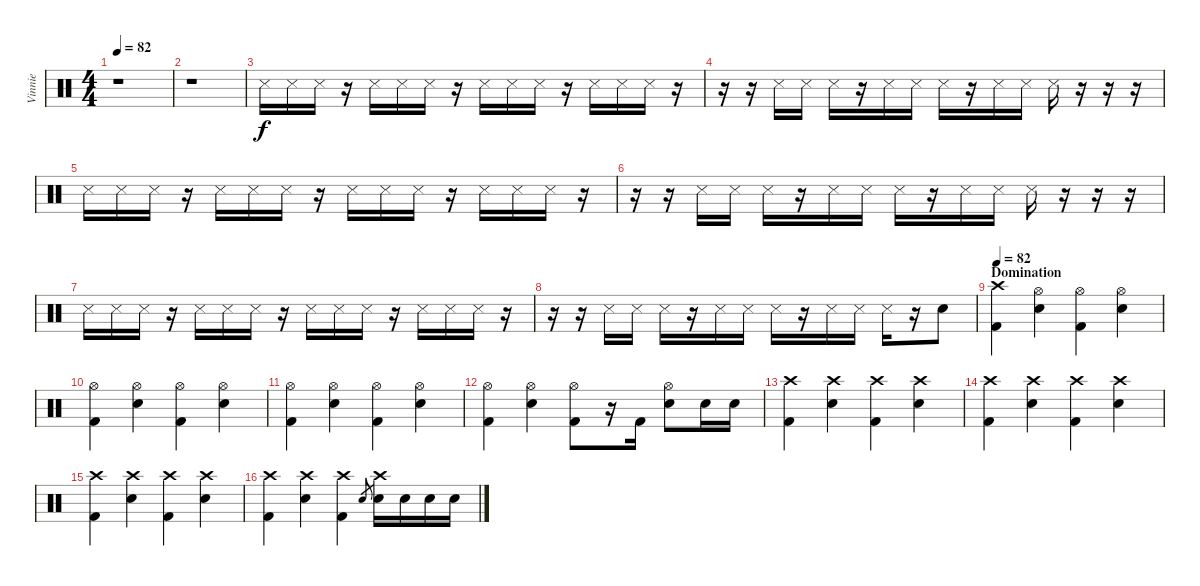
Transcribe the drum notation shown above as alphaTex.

\track ("Vinnie" "Vinnie") {instrument percussion}
\staff {score}
\articulation defaults
\ts (4 4)
\tempo 82
\tempo 75
\tempo 82
\clef neutral
\ks c
r.1{dy f} |
r.1 |
"Snare (side stick) 3".16 "Snare (side stick) 3".16 "Snare (side stick) 3".16 r.16 "Snare (side stick) 3".16 "Snare (side stick) 3".16 "Snare (side stick) 3".16 r.16 "Snare (side stick) 3".16 "Snare (side stick) 3".16 "Snare (side stick) 3".16 r.16 "Snare (side stick) 3".16 "Snare (side stick) 3".16 "Snare (side stick) 3".16 r.16 |
r.16 r.16 "Snare (side stick) 3".16 "Snare (side stick) 3".16 "Snare (side stick) 3".16 r.16 "Snare (side stick) 3".16 "Snare (side stick) 3".16 "Snare (side stick) 3".16 r.16 "Snare (side stick) 3".16 "Snare (side stick) 3".16 "Snare (side stick) 3".16 r.16 r.16 r.16 |
"Snare (side stick) 3".16 "Snare (side stick) 3".16 "Snare (side stick) 3".16 r.16 "Snare (side stick) 3".16 "Snare (side stick) 3".16 "Snare (side stick) 3".16 r.16 "Snare (side stick) 3".16 "Snare (side stick) 3".16 "Snare (side stick) 3".16 r.16 "Snare (side stick) 3".16 "Snare (side stick) 3".16 "Snare (side stick) 3".16 r.16 |
r.16 r.16 "Snare (side stick) 3".16 "Snare (side stick) 3".16 "Snare (side stick) 3".16 r.16 "Snare (side stick) 3".16 "Snare (side stick) 3".16 "Snare (side stick) 3".16 r.16 "Snare (side stick) 3".16 "Snare (side stick) 3".16 "Snare (side stick) 3".16 r.16 r.16 r.16 |
"Snare (side stick) 3".16 "Snare (side stick) 3".16 "Snare (side stick) 3".16 r.16 "Snare (side stick) 3".16 "Snare (side stick) 3".16 "Snare (side stick) 3".16 r.16 "Snare (side stick) 3".16 "Snare (side stick) 3".16 "Snare (side stick) 3".16 r.16 "Snare (side stick) 3".16 "Snare (side stick) 3".16 "Snare (side stick) 3".16 r.16 |
r.16 r.16 "Snare (side stick) 3".16 "Snare (side stick) 3".16 "Snare (side stick) 3".16 r.16 "Snare (side stick) 3".16 "Snare (side stick) 3".16 "Snare (side stick) 3".16 r.16 "Snare (side stick) 3".16 "Snare (side stick) 3".16 "Snare (side stick) 3".16 r.16 "Electric Snare (hit)".8 |
\section ("" "Domination")
\tempo 82
("Crash high (hit)" "Kick (hit) 2").4 ("Hi-Hat (open)" "Electric Snare (hit)").4 ("Hi-Hat (open)" "Kick (hit) 2").4 ("Hi-Hat (open)" "Electric Snare (hit)").4 |
("Hi-Hat (open)" "Kick (hit) 2").4 ("Hi-Hat (open)" "Electric Snare (hit)").4 ("Hi-Hat (open)" "Kick (hit) 2").4 ("Hi-Hat (open)" "Electric Snare (hit)").4 |
("Hi-Hat (open)" "Kick (hit) 2").4 ("Hi-Hat (open)" "Electric Snare (hit)").4 ("Hi-Hat (open)" "Kick (hit) 2").4 ("Hi-Hat (open)" "Electric Snare (hit)").4 |
("Hi-Hat (open)" "Kick (hit) 2").4 ("Hi-Hat (open)" "Electric Snare (hit)").4 ("Hi-Hat (open)" "Kick (hit) 2").8 r.16 "Kick (hit) 2".16 ("Hi-Hat (open)" "Electric Snare (hit)").8 "Electric Snare (hit)".16 "Electric Snare (hit)".16 |
("Crash high (hit)" "Kick (hit) 2").4 ("Crash high (hit)" "Electric Snare (hit)").4 ("Crash high (hit)" "Kick (hit) 2").4 ("Crash high (hit)" "Electric Snare (hit)").4 |
("Crash high (hit)" "Kick (hit) 2").4 ("Crash high (hit)" "Electric Snare (hit)").4 ("Crash high (hit)" "Kick (hit) 2").4 ("Crash high (hit)" "Electric Snare (hit)").4 |
("Crash high (hit)" "Kick (hit) 2").4 ("Crash high (hit)" "Electric Snare (hit)").4 ("Crash high (hit)" "Kick (hit) 2").4 ("Crash high (hit)" "Electric Snare (hit)").4 |
("Crash high (hit)" "Kick (hit) 2").4 ("Crash high (hit)" "Electric Snare (hit)").4 ("Crash high (hit)" "Kick (hit) 2").4 "Electric Snare (hit)".8{gr} ("Crash high (hit)" "Electric Snare (hit)").16 "Electric Snare (hit)".16 "Electric Snare (hit)".16 "Electric Snare (hit)".16
